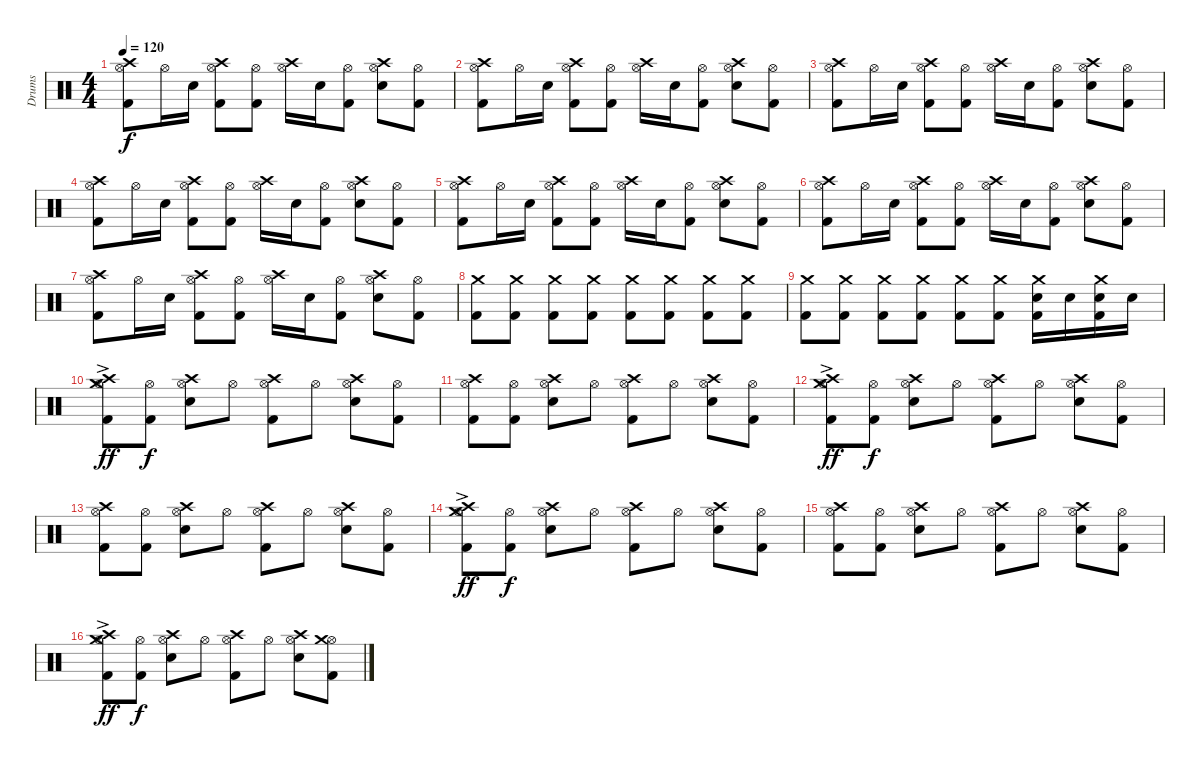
\track ("Drums" "Drums") {instrument percussion}
\staff {score}
\articulation defaults
\ts (4 4)
\tempo 120
\clef neutral
\ks c
("Hi-Hat (open)" "Crash high (hit)" "Kick (hit) 2").8{dy f} "Hi-Hat (open)".16 "Electric Snare (hit)".16 ("Hi-Hat (open)" "Crash high (hit)" "Kick (hit) 2").8 ("Hi-Hat (open)" "Kick (hit) 2").8 ("Hi-Hat (open)" "Crash high (hit)").16 "Electric Snare (hit)".16 ("Hi-Hat (open)" "Kick (hit) 2").8 ("Hi-Hat (open)" "Crash high (hit)" "Electric Snare (hit)").8 ("Hi-Hat (open)" "Kick (hit) 2").8 |
("Hi-Hat (open)" "Crash high (hit)" "Kick (hit) 2").8 "Hi-Hat (open)".16 "Electric Snare (hit)".16 ("Hi-Hat (open)" "Crash high (hit)" "Kick (hit) 2").8 ("Hi-Hat (open)" "Kick (hit) 2").8 ("Hi-Hat (open)" "Crash high (hit)").16 "Electric Snare (hit)".16 ("Hi-Hat (open)" "Kick (hit) 2").8 ("Hi-Hat (open)" "Crash high (hit)" "Electric Snare (hit)").8 ("Hi-Hat (open)" "Kick (hit) 2").8 |
("Hi-Hat (open)" "Crash high (hit)" "Kick (hit) 2").8 "Hi-Hat (open)".16 "Electric Snare (hit)".16 ("Hi-Hat (open)" "Crash high (hit)" "Kick (hit) 2").8 ("Hi-Hat (open)" "Kick (hit) 2").8 ("Hi-Hat (open)" "Crash high (hit)").16 "Electric Snare (hit)".16 ("Hi-Hat (open)" "Kick (hit) 2").8 ("Hi-Hat (open)" "Crash high (hit)" "Electric Snare (hit)").8 ("Hi-Hat (open)" "Kick (hit) 2").8 |
("Hi-Hat (open)" "Crash high (hit)" "Kick (hit) 2").8 "Hi-Hat (open)".16 "Electric Snare (hit)".16 ("Hi-Hat (open)" "Crash high (hit)" "Kick (hit) 2").8 ("Hi-Hat (open)" "Kick (hit) 2").8 ("Hi-Hat (open)" "Crash high (hit)").16 "Electric Snare (hit)".16 ("Hi-Hat (open)" "Kick (hit) 2").8 ("Hi-Hat (open)" "Crash high (hit)" "Electric Snare (hit)").8 ("Hi-Hat (open)" "Kick (hit) 2").8 |
("Hi-Hat (open)" "Crash high (hit)" "Kick (hit) 2").8 "Hi-Hat (open)".16 "Electric Snare (hit)".16 ("Hi-Hat (open)" "Crash high (hit)" "Kick (hit) 2").8 ("Hi-Hat (open)" "Kick (hit) 2").8 ("Hi-Hat (open)" "Crash high (hit)").16 "Electric Snare (hit)".16 ("Hi-Hat (open)" "Kick (hit) 2").8 ("Hi-Hat (open)" "Crash high (hit)" "Electric Snare (hit)").8 ("Hi-Hat (open)" "Kick (hit) 2").8 |
("Hi-Hat (open)" "Crash high (hit)" "Kick (hit) 2").8 "Hi-Hat (open)".16 "Electric Snare (hit)".16 ("Hi-Hat (open)" "Crash high (hit)" "Kick (hit) 2").8 ("Hi-Hat (open)" "Kick (hit) 2").8 ("Hi-Hat (open)" "Crash high (hit)").16 "Electric Snare (hit)".16 ("Hi-Hat (open)" "Kick (hit) 2").8 ("Hi-Hat (open)" "Crash high (hit)" "Electric Snare (hit)").8 ("Hi-Hat (open)" "Kick (hit) 2").8 |
("Hi-Hat (open)" "Crash high (hit)" "Kick (hit) 2").8 "Hi-Hat (open)".16 "Electric Snare (hit)".16 ("Hi-Hat (open)" "Crash high (hit)" "Kick (hit) 2").8 ("Hi-Hat (open)" "Kick (hit) 2").8 ("Hi-Hat (open)" "Crash high (hit)").16 "Electric Snare (hit)".16 ("Hi-Hat (open)" "Kick (hit) 2").8 ("Hi-Hat (open)" "Crash high (hit)" "Electric Snare (hit)").8 ("Hi-Hat (open)" "Kick (hit) 2").8 |
("Crash medium (hit)" "Kick (hit) 2").8{volume 3} ("Crash medium (hit)" "Kick (hit) 2").8{volume 13} ("Crash medium (hit)" "Kick (hit) 2").8 ("Crash medium (hit)" "Kick (hit) 2").8 ("Crash medium (hit)" "Kick (hit) 2").8 ("Crash medium (hit)" "Kick (hit) 2").8 ("Crash medium (hit)" "Kick (hit) 2").8 ("Crash medium (hit)" "Kick (hit) 2").8 |
("Crash medium (hit)" "Kick (hit) 2").8 ("Crash medium (hit)" "Kick (hit) 2").8 ("Crash medium (hit)" "Kick (hit) 2").8 ("Crash medium (hit)" "Kick (hit) 2").8 ("Crash medium (hit)" "Kick (hit) 2").8 ("Crash medium (hit)" "Kick (hit) 2").8 ("Crash medium (hit)" "Electric Snare (hit)" "Kick (hit) 2").16 "Electric Snare (hit)".16 ("Crash medium (hit)" "Electric Snare (hit)" "Kick (hit) 2").16 "Electric Snare (hit)".16 |
("Crash high (hit)" "Hi-Hat (open)" "Crash medium (hit)"{ac} "Kick (hit) 2").8{dy ff} ("Hi-Hat (open)" "Kick (hit) 2").8{dy f} ("Crash high (hit)" "Hi-Hat (open)" "Electric Snare (hit)").8 "Hi-Hat (open)".8 ("Crash high (hit)" "Hi-Hat (open)" "Kick (hit) 2").8 "Hi-Hat (open)".8 ("Crash high (hit)" "Hi-Hat (open)" "Electric Snare (hit)").8 ("Hi-Hat (open)" "Kick (hit) 2").8 |
("Crash high (hit)" "Hi-Hat (open)" "Kick (hit) 2").8 ("Hi-Hat (open)" "Kick (hit) 2").8 ("Crash high (hit)" "Hi-Hat (open)" "Electric Snare (hit)").8 "Hi-Hat (open)".8 ("Crash high (hit)" "Hi-Hat (open)" "Kick (hit) 2").8 "Hi-Hat (open)".8 ("Crash high (hit)" "Hi-Hat (open)" "Electric Snare (hit)").8 ("Hi-Hat (open)" "Kick (hit) 2").8 |
("Crash high (hit)" "Hi-Hat (open)" "Crash medium (hit)"{ac} "Kick (hit) 2").8{dy ff} ("Hi-Hat (open)" "Kick (hit) 2").8{dy f} ("Crash high (hit)" "Hi-Hat (open)" "Electric Snare (hit)").8 "Hi-Hat (open)".8 ("Crash high (hit)" "Hi-Hat (open)" "Kick (hit) 2").8 "Hi-Hat (open)".8 ("Crash high (hit)" "Hi-Hat (open)" "Electric Snare (hit)").8 ("Hi-Hat (open)" "Kick (hit) 2").8 |
("Crash high (hit)" "Hi-Hat (open)" "Kick (hit) 2").8 ("Hi-Hat (open)" "Kick (hit) 2").8 ("Crash high (hit)" "Hi-Hat (open)" "Electric Snare (hit)").8 "Hi-Hat (open)".8 ("Crash high (hit)" "Hi-Hat (open)" "Kick (hit) 2").8 "Hi-Hat (open)".8 ("Crash high (hit)" "Hi-Hat (open)" "Electric Snare (hit)").8 ("Hi-Hat (open)" "Kick (hit) 2").8 |
("Crash high (hit)" "Hi-Hat (open)" "Crash medium (hit)"{ac} "Kick (hit) 2").8{dy ff} ("Hi-Hat (open)" "Kick (hit) 2").8{dy f} ("Crash high (hit)" "Hi-Hat (open)" "Electric Snare (hit)").8 "Hi-Hat (open)".8 ("Crash high (hit)" "Hi-Hat (open)" "Kick (hit) 2").8 "Hi-Hat (open)".8 ("Crash high (hit)" "Hi-Hat (open)" "Electric Snare (hit)").8 ("Hi-Hat (open)" "Kick (hit) 2").8 |
("Crash high (hit)" "Hi-Hat (open)" "Kick (hit) 2").8 ("Hi-Hat (open)" "Kick (hit) 2").8 ("Crash high (hit)" "Hi-Hat (open)" "Electric Snare (hit)").8 "Hi-Hat (open)".8 ("Crash high (hit)" "Hi-Hat (open)" "Kick (hit) 2").8 "Hi-Hat (open)".8 ("Crash high (hit)" "Hi-Hat (open)" "Electric Snare (hit)").8 ("Hi-Hat (open)" "Kick (hit) 2").8 |
("Crash high (hit)" "Hi-Hat (open)" "Crash medium (hit)"{ac} "Kick (hit) 2").8{dy ff} ("Hi-Hat (open)" "Kick (hit) 2").8{dy f} ("Crash high (hit)" "Hi-Hat (open)" "Electric Snare (hit)").8 "Hi-Hat (open)".8 ("Crash high (hit)" "Hi-Hat (open)" "Kick (hit) 2").8 "Hi-Hat (open)".8 ("Crash high (hit)" "Hi-Hat (open)" "Electric Snare (hit)").8 ("Hi-Hat (open)" "Crash medium (hit)" "Kick (hit) 2").8
